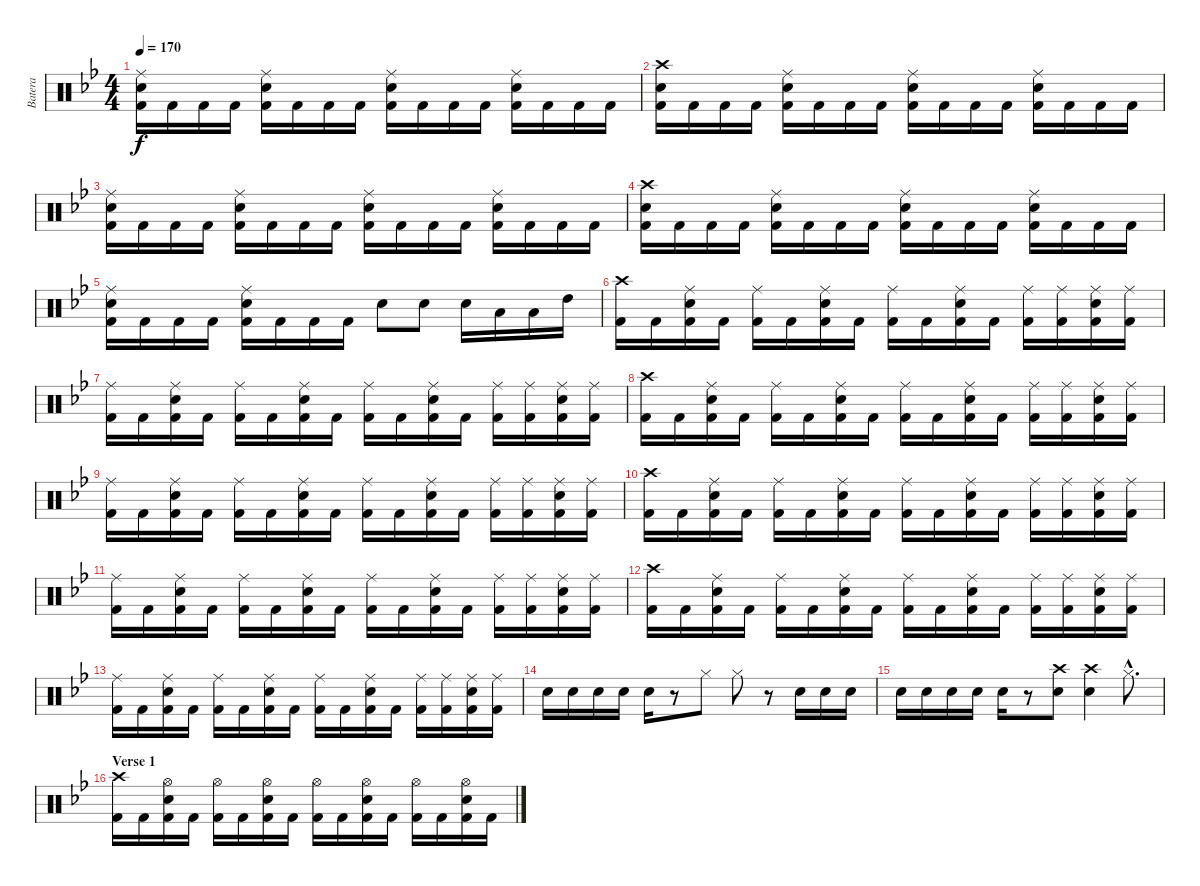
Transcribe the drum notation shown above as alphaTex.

\track ("Batera" "Batera") {instrument percussion}
\staff {score}
\articulation defaults
\ts (4 4)
\tempo 170
\clef neutral
\ks bb
("Ride (middle)" "Electric Snare (hit)" "Kick (hit) 2").16{dy f} "Kick (hit) 2".16 "Kick (hit) 2".16 "Kick (hit) 2".16 ("Ride (middle)" "Electric Snare (hit)" "Kick (hit) 2").16 "Kick (hit) 2".16 "Kick (hit) 2".16 "Kick (hit) 2".16 ("Ride (middle)" "Electric Snare (hit)" "Kick (hit) 2").16 "Kick (hit) 2".16 "Kick (hit) 2".16 "Kick (hit) 2".16 ("Ride (middle)" "Electric Snare (hit)" "Kick (hit) 2").16 "Kick (hit) 2".16 "Kick (hit) 2".16 "Kick (hit) 2".16 |
("Crash high (hit)" "Electric Snare (hit)" "Kick (hit) 2").16 "Kick (hit) 2".16 "Kick (hit) 2".16 "Kick (hit) 2".16 ("Ride (middle)" "Electric Snare (hit)" "Kick (hit) 2").16 "Kick (hit) 2".16 "Kick (hit) 2".16 "Kick (hit) 2".16 ("Ride (middle)" "Electric Snare (hit)" "Kick (hit) 2").16 "Kick (hit) 2".16 "Kick (hit) 2".16 "Kick (hit) 2".16 ("Ride (middle)" "Electric Snare (hit)" "Kick (hit) 2").16 "Kick (hit) 2".16 "Kick (hit) 2".16 "Kick (hit) 2".16 |
("Ride (middle)" "Electric Snare (hit)" "Kick (hit) 2").16 "Kick (hit) 2".16 "Kick (hit) 2".16 "Kick (hit) 2".16 ("Ride (middle)" "Electric Snare (hit)" "Kick (hit) 2").16 "Kick (hit) 2".16 "Kick (hit) 2".16 "Kick (hit) 2".16 ("Ride (middle)" "Electric Snare (hit)" "Kick (hit) 2").16 "Kick (hit) 2".16 "Kick (hit) 2".16 "Kick (hit) 2".16 ("Ride (middle)" "Electric Snare (hit)" "Kick (hit) 2").16 "Kick (hit) 2".16 "Kick (hit) 2".16 "Kick (hit) 2".16 |
("Crash high (hit)" "Electric Snare (hit)" "Kick (hit) 2").16 "Kick (hit) 2".16 "Kick (hit) 2".16 "Kick (hit) 2".16 ("Ride (middle)" "Electric Snare (hit)" "Kick (hit) 2").16 "Kick (hit) 2".16 "Kick (hit) 2".16 "Kick (hit) 2".16 ("Ride (middle)" "Electric Snare (hit)" "Kick (hit) 2").16 "Kick (hit) 2".16 "Kick (hit) 2".16 "Kick (hit) 2".16 ("Ride (middle)" "Electric Snare (hit)" "Kick (hit) 2").16 "Kick (hit) 2".16 "Kick (hit) 2".16 "Kick (hit) 2".16 |
("Ride (middle)" "Electric Snare (hit)" "Kick (hit) 2").16 "Kick (hit) 2".16 "Kick (hit) 2".16 "Kick (hit) 2".16 ("Ride (middle)" "Electric Snare (hit)" "Kick (hit) 2").16 "Kick (hit) 2".16 "Kick (hit) 2".16 "Kick (hit) 2".16 "Electric Snare (hit)".8 "Electric Snare (hit)".8 "Electric Snare (hit)".16 "Low Floor Tom (hit)".16 "Low Tom (hit)".16 "High Tom (hit)".16 |
("Crash high (hit)" "Kick (hit) 2").16 "Kick (hit) 2".16 ("Ride (middle)" "Electric Snare (hit)" "Kick (hit) 2").16 "Kick (hit) 2".16 ("Ride (middle)" "Kick (hit) 2").16 "Kick (hit) 2".16 ("Ride (middle)" "Electric Snare (hit)" "Kick (hit) 2").16 "Kick (hit) 2".16 ("Ride (middle)" "Kick (hit) 2").16 "Kick (hit) 2".16 ("Ride (middle)" "Electric Snare (hit)" "Kick (hit) 2").16 "Kick (hit) 2".16 ("Ride (middle)" "Kick (hit) 2").16 ("Ride (middle)" "Kick (hit) 2").16 ("Ride (middle)" "Electric Snare (hit)" "Kick (hit) 2").16 ("Ride (middle)" "Kick (hit) 2").16 |
("Ride (middle)" "Kick (hit) 2").16 "Kick (hit) 2".16 ("Ride (middle)" "Electric Snare (hit)" "Kick (hit) 2").16 "Kick (hit) 2".16 ("Ride (middle)" "Kick (hit) 2").16 "Kick (hit) 2".16 ("Ride (middle)" "Electric Snare (hit)" "Kick (hit) 2").16 "Kick (hit) 2".16 ("Ride (middle)" "Kick (hit) 2").16 "Kick (hit) 2".16 ("Ride (middle)" "Electric Snare (hit)" "Kick (hit) 2").16 "Kick (hit) 2".16 ("Ride (middle)" "Kick (hit) 2").16 ("Ride (middle)" "Kick (hit) 2").16 ("Ride (middle)" "Electric Snare (hit)" "Kick (hit) 2").16 ("Ride (middle)" "Kick (hit) 2").16 |
("Crash high (hit)" "Kick (hit) 2").16 "Kick (hit) 2".16 ("Ride (middle)" "Electric Snare (hit)" "Kick (hit) 2").16 "Kick (hit) 2".16 ("Ride (middle)" "Kick (hit) 2").16 "Kick (hit) 2".16 ("Ride (middle)" "Electric Snare (hit)" "Kick (hit) 2").16 "Kick (hit) 2".16 ("Ride (middle)" "Kick (hit) 2").16 "Kick (hit) 2".16 ("Ride (middle)" "Electric Snare (hit)" "Kick (hit) 2").16 "Kick (hit) 2".16 ("Ride (middle)" "Kick (hit) 2").16 ("Ride (middle)" "Kick (hit) 2").16 ("Ride (middle)" "Electric Snare (hit)" "Kick (hit) 2").16 ("Ride (middle)" "Kick (hit) 2").16 |
("Ride (middle)" "Kick (hit) 2").16 "Kick (hit) 2".16 ("Ride (middle)" "Electric Snare (hit)" "Kick (hit) 2").16 "Kick (hit) 2".16 ("Ride (middle)" "Kick (hit) 2").16 "Kick (hit) 2".16 ("Ride (middle)" "Electric Snare (hit)" "Kick (hit) 2").16 "Kick (hit) 2".16 ("Ride (middle)" "Kick (hit) 2").16 "Kick (hit) 2".16 ("Ride (middle)" "Electric Snare (hit)" "Kick (hit) 2").16 "Kick (hit) 2".16 ("Ride (middle)" "Kick (hit) 2").16 ("Ride (middle)" "Kick (hit) 2").16 ("Ride (middle)" "Electric Snare (hit)" "Kick (hit) 2").16 ("Ride (middle)" "Kick (hit) 2").16 |
("Crash high (hit)" "Kick (hit) 2").16 "Kick (hit) 2".16 ("Ride (middle)" "Electric Snare (hit)" "Kick (hit) 2").16 "Kick (hit) 2".16 ("Ride (middle)" "Kick (hit) 2").16 "Kick (hit) 2".16 ("Ride (middle)" "Electric Snare (hit)" "Kick (hit) 2").16 "Kick (hit) 2".16 ("Ride (middle)" "Kick (hit) 2").16 "Kick (hit) 2".16 ("Ride (middle)" "Electric Snare (hit)" "Kick (hit) 2").16 "Kick (hit) 2".16 ("Ride (middle)" "Kick (hit) 2").16 ("Ride (middle)" "Kick (hit) 2").16 ("Ride (middle)" "Electric Snare (hit)" "Kick (hit) 2").16 ("Ride (middle)" "Kick (hit) 2").16 |
("Ride (middle)" "Kick (hit) 2").16 "Kick (hit) 2".16 ("Ride (middle)" "Electric Snare (hit)" "Kick (hit) 2").16 "Kick (hit) 2".16 ("Ride (middle)" "Kick (hit) 2").16 "Kick (hit) 2".16 ("Ride (middle)" "Electric Snare (hit)" "Kick (hit) 2").16 "Kick (hit) 2".16 ("Ride (middle)" "Kick (hit) 2").16 "Kick (hit) 2".16 ("Ride (middle)" "Electric Snare (hit)" "Kick (hit) 2").16 "Kick (hit) 2".16 ("Ride (middle)" "Kick (hit) 2").16 ("Ride (middle)" "Kick (hit) 2").16 ("Ride (middle)" "Electric Snare (hit)" "Kick (hit) 2").16 ("Ride (middle)" "Kick (hit) 2").16 |
("Crash high (hit)" "Kick (hit) 2").16 "Kick (hit) 2".16 ("Ride (middle)" "Electric Snare (hit)" "Kick (hit) 2").16 "Kick (hit) 2".16 ("Ride (middle)" "Kick (hit) 2").16 "Kick (hit) 2".16 ("Ride (middle)" "Electric Snare (hit)" "Kick (hit) 2").16 "Kick (hit) 2".16 ("Ride (middle)" "Kick (hit) 2").16 "Kick (hit) 2".16 ("Ride (middle)" "Electric Snare (hit)" "Kick (hit) 2").16 "Kick (hit) 2".16 ("Ride (middle)" "Kick (hit) 2").16 ("Ride (middle)" "Kick (hit) 2").16 ("Ride (middle)" "Electric Snare (hit)" "Kick (hit) 2").16 ("Ride (middle)" "Kick (hit) 2").16 |
("Ride (middle)" "Kick (hit) 2").16 "Kick (hit) 2".16 ("Ride (middle)" "Electric Snare (hit)" "Kick (hit) 2").16 "Kick (hit) 2".16 ("Ride (middle)" "Kick (hit) 2").16 "Kick (hit) 2".16 ("Ride (middle)" "Electric Snare (hit)" "Kick (hit) 2").16 "Kick (hit) 2".16 ("Ride (middle)" "Kick (hit) 2").16 "Kick (hit) 2".16 ("Ride (middle)" "Electric Snare (hit)" "Kick (hit) 2").16 "Kick (hit) 2".16 ("Ride (middle)" "Kick (hit) 2").16 ("Ride (middle)" "Kick (hit) 2").16 ("Ride (middle)" "Electric Snare (hit)" "Kick (hit) 2").16 ("Ride (middle)" "Kick (hit) 2").16 |
"Electric Snare (hit)".16 "Electric Snare (hit)".16 "Electric Snare (hit)".16 "Electric Snare (hit)".16 "Electric Snare (hit)".16 r.8 "Hi-Hat (closed)".8 "Hi-Hat (closed)".8 r.8 "Electric Snare (hit)".16 "Electric Snare (hit)".16 "Electric Snare (hit)".16 |
"Electric Snare (hit)".16 "Electric Snare (hit)".16 "Electric Snare (hit)".16 "Electric Snare (hit)".16 "Electric Snare (hit)".16 r.8 ("Crash high (hit)" "Electric Snare (hit)").8 ("Crash high (hit)" "Electric Snare (hit)").4 "Hi-Hat (closed)"{hac}.8{d} |
\section ("" "Verse 1")
("Crash high (hit)" "Kick (hit) 2").16 "Kick (hit) 2".16 ("Hi-Hat (open)" "Electric Snare (hit)" "Kick (hit) 2").16 "Kick (hit) 2".16 ("Hi-Hat (open)" "Kick (hit) 2").16 "Kick (hit) 2".16 ("Hi-Hat (open)" "Electric Snare (hit)" "Kick (hit) 2").16 "Kick (hit) 2".16 ("Hi-Hat (open)" "Kick (hit) 2").16 "Kick (hit) 2".16 ("Hi-Hat (open)" "Electric Snare (hit)" "Kick (hit) 2").16 "Kick (hit) 2".16 ("Hi-Hat (open)" "Kick (hit) 2").16 "Kick (hit) 2".16 ("Hi-Hat (open)" "Electric Snare (hit)" "Kick (hit) 2").16 "Kick (hit) 2".16
